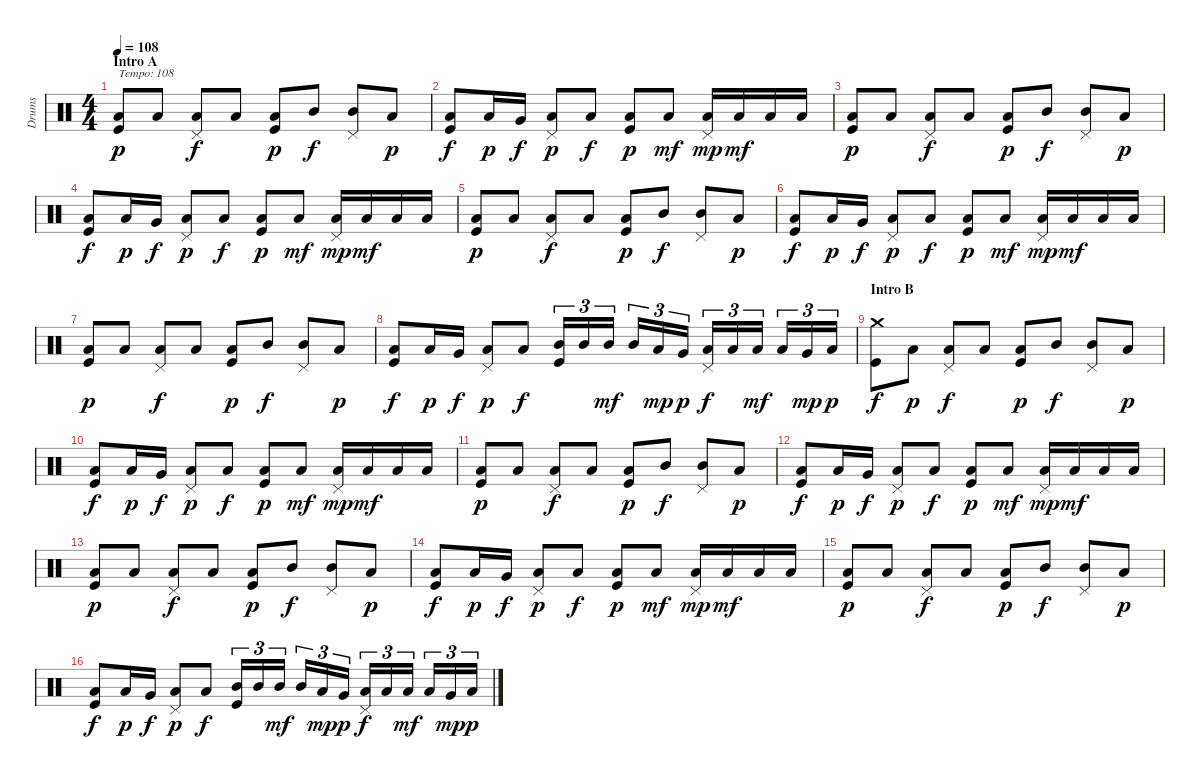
\track ("Drums" "Drums") {instrument percussion}
\staff {score}
\articulation defaults
\ts (4 4)
\section ("" "Intro A")
\tempo 108
\clef neutral
\ks c
("Low Floor Tom (hit)" "Kick (hit)").8{txt "Tempo: 108" dy p} "Low Floor Tom (hit)".8 ("Low Tom (hit)" "Pedal Hi-Hat (hit)").8{dy f} "Low Tom (hit)".8 ("Low Floor Tom (hit)" "Kick (hit)").8{dy p} "Mid Tom (hit)".8{dy f} ("Mid Tom (hit)" "Pedal Hi-Hat (hit)").8 "Low Floor Tom (hit)".8{dy p} |
("Low Tom (hit)" "Kick (hit)").8{dy f} "Low Floor Tom (hit)".16{dy p} "Very Low Tom (hit)".16{dy f} ("Low Floor Tom (hit)" "Pedal Hi-Hat (hit)").8{dy p} "Low Tom (hit)".8{dy f} ("Low Floor Tom (hit)" "Kick (hit)").8{dy p} "Low Floor Tom (hit)".8{dy mf} ("Low Floor Tom (hit)" "Pedal Hi-Hat (hit)").16{dy mp} "Low Floor Tom (hit)".16{dy mf} "Low Floor Tom (hit)".16 "Low Floor Tom (hit)".16 |
("Low Floor Tom (hit)" "Kick (hit)").8{dy p} "Low Floor Tom (hit)".8 ("Low Tom (hit)" "Pedal Hi-Hat (hit)").8{dy f} "Low Tom (hit)".8 ("Low Floor Tom (hit)" "Kick (hit)").8{dy p} "Mid Tom (hit)".8{dy f} ("Mid Tom (hit)" "Pedal Hi-Hat (hit)").8 "Low Floor Tom (hit)".8{dy p} |
("Low Tom (hit)" "Kick (hit)").8{dy f} "Low Floor Tom (hit)".16{dy p} "Very Low Tom (hit)".16{dy f} ("Low Floor Tom (hit)" "Pedal Hi-Hat (hit)").8{dy p} "Low Tom (hit)".8{dy f} ("Low Floor Tom (hit)" "Kick (hit)").8{dy p} "Low Floor Tom (hit)".8{dy mf} ("Low Floor Tom (hit)" "Pedal Hi-Hat (hit)").16{dy mp} "Low Floor Tom (hit)".16{dy mf} "Low Floor Tom (hit)".16 "Low Floor Tom (hit)".16 |
("Low Floor Tom (hit)" "Kick (hit)").8{dy p} "Low Floor Tom (hit)".8 ("Low Tom (hit)" "Pedal Hi-Hat (hit)").8{dy f} "Low Tom (hit)".8 ("Low Floor Tom (hit)" "Kick (hit)").8{dy p} "Mid Tom (hit)".8{dy f} ("Mid Tom (hit)" "Pedal Hi-Hat (hit)").8 "Low Floor Tom (hit)".8{dy p} |
("Low Tom (hit)" "Kick (hit)").8{dy f} "Low Floor Tom (hit)".16{dy p} "Very Low Tom (hit)".16{dy f} ("Low Floor Tom (hit)" "Pedal Hi-Hat (hit)").8{dy p} "Low Tom (hit)".8{dy f} ("Low Floor Tom (hit)" "Kick (hit)").8{dy p} "Low Floor Tom (hit)".8{dy mf} ("Low Floor Tom (hit)" "Pedal Hi-Hat (hit)").16{dy mp} "Low Floor Tom (hit)".16{dy mf} "Low Floor Tom (hit)".16 "Low Floor Tom (hit)".16 |
("Low Floor Tom (hit)" "Kick (hit)").8{dy p} "Low Floor Tom (hit)".8 ("Low Tom (hit)" "Pedal Hi-Hat (hit)").8{dy f} "Low Tom (hit)".8 ("Low Floor Tom (hit)" "Kick (hit)").8{dy p} "Mid Tom (hit)".8{dy f} ("Mid Tom (hit)" "Pedal Hi-Hat (hit)").8 "Low Floor Tom (hit)".8{dy p} |
("Low Tom (hit)" "Kick (hit)").8{dy f} "Low Floor Tom (hit)".16{dy p} "Very Low Tom (hit)".16{dy f} ("Low Floor Tom (hit)" "Pedal Hi-Hat (hit)").8{dy p} "Low Tom (hit)".8{dy f} ("Mid Tom (hit)" "Kick (hit)").16{tu (3 2)} "Mid Tom (hit)".16{tu (3 2)} "Mid Tom (hit)".16{tu (3 2) dy mf} "Mid Tom (hit)".16{tu (3 2)} "Low Tom (hit)".16{tu (3 2) dy mp} "Very Low Tom (hit)".16{tu (3 2) dy p} ("Low Tom (hit)" "Pedal Hi-Hat (hit)").16{tu (3 2) dy f} "Low Tom (hit)".16{tu (3 2)} "Low Tom (hit)".16{tu (3 2) dy mf} "Low Tom (hit)".16{tu (3 2)} "Very Low Tom (hit)".16{tu (3 2) dy mp} "Low Floor Tom (hit)".16{tu (3 2) dy p} |
\section ("" "Intro B")
("Crash medium (hit)" "Kick (hit)").8{dy f} "Low Floor Tom (hit)".8{dy p} ("Low Tom (hit)" "Pedal Hi-Hat (hit)").8{dy f} "Low Tom (hit)".8 ("Low Floor Tom (hit)" "Kick (hit)").8{dy p} "Mid Tom (hit)".8{dy f} ("Mid Tom (hit)" "Pedal Hi-Hat (hit)").8 "Low Floor Tom (hit)".8{dy p} |
("Low Tom (hit)" "Kick (hit)").8{dy f} "Low Floor Tom (hit)".16{dy p} "Very Low Tom (hit)".16{dy f} ("Low Floor Tom (hit)" "Pedal Hi-Hat (hit)").8{dy p} "Low Tom (hit)".8{dy f} ("Low Floor Tom (hit)" "Kick (hit)").8{dy p} "Low Floor Tom (hit)".8{dy mf} ("Low Floor Tom (hit)" "Pedal Hi-Hat (hit)").16{dy mp} "Low Floor Tom (hit)".16{dy mf} "Low Floor Tom (hit)".16 "Low Floor Tom (hit)".16 |
("Low Floor Tom (hit)" "Kick (hit)").8{dy p} "Low Floor Tom (hit)".8 ("Low Tom (hit)" "Pedal Hi-Hat (hit)").8{dy f} "Low Tom (hit)".8 ("Low Floor Tom (hit)" "Kick (hit)").8{dy p} "Mid Tom (hit)".8{dy f} ("Mid Tom (hit)" "Pedal Hi-Hat (hit)").8 "Low Floor Tom (hit)".8{dy p} |
("Low Tom (hit)" "Kick (hit)").8{dy f} "Low Floor Tom (hit)".16{dy p} "Very Low Tom (hit)".16{dy f} ("Low Floor Tom (hit)" "Pedal Hi-Hat (hit)").8{dy p} "Low Tom (hit)".8{dy f} ("Low Floor Tom (hit)" "Kick (hit)").8{dy p} "Low Floor Tom (hit)".8{dy mf} ("Low Floor Tom (hit)" "Pedal Hi-Hat (hit)").16{dy mp} "Low Floor Tom (hit)".16{dy mf} "Low Floor Tom (hit)".16 "Low Floor Tom (hit)".16 |
("Low Floor Tom (hit)" "Kick (hit)").8{dy p} "Low Floor Tom (hit)".8 ("Low Tom (hit)" "Pedal Hi-Hat (hit)").8{dy f} "Low Tom (hit)".8 ("Low Floor Tom (hit)" "Kick (hit)").8{dy p} "Mid Tom (hit)".8{dy f} ("Mid Tom (hit)" "Pedal Hi-Hat (hit)").8 "Low Floor Tom (hit)".8{dy p} |
("Low Tom (hit)" "Kick (hit)").8{dy f} "Low Floor Tom (hit)".16{dy p} "Very Low Tom (hit)".16{dy f} ("Low Floor Tom (hit)" "Pedal Hi-Hat (hit)").8{dy p} "Low Tom (hit)".8{dy f} ("Low Floor Tom (hit)" "Kick (hit)").8{dy p} "Low Floor Tom (hit)".8{dy mf} ("Low Floor Tom (hit)" "Pedal Hi-Hat (hit)").16{dy mp} "Low Floor Tom (hit)".16{dy mf} "Low Floor Tom (hit)".16 "Low Floor Tom (hit)".16 |
("Low Floor Tom (hit)" "Kick (hit)").8{dy p} "Low Floor Tom (hit)".8 ("Low Tom (hit)" "Pedal Hi-Hat (hit)").8{dy f} "Low Tom (hit)".8 ("Low Floor Tom (hit)" "Kick (hit)").8{dy p} "Mid Tom (hit)".8{dy f} ("Mid Tom (hit)" "Pedal Hi-Hat (hit)").8 "Low Floor Tom (hit)".8{dy p} |
("Low Tom (hit)" "Kick (hit)").8{dy f} "Low Floor Tom (hit)".16{dy p} "Very Low Tom (hit)".16{dy f} ("Low Floor Tom (hit)" "Pedal Hi-Hat (hit)").8{dy p} "Low Tom (hit)".8{dy f} ("Mid Tom (hit)" "Kick (hit)").16{tu (3 2)} "Mid Tom (hit)".16{tu (3 2)} "Mid Tom (hit)".16{tu (3 2) dy mf} "Mid Tom (hit)".16{tu (3 2)} "Low Tom (hit)".16{tu (3 2) dy mp} "Very Low Tom (hit)".16{tu (3 2) dy p} ("Low Tom (hit)" "Pedal Hi-Hat (hit)").16{tu (3 2) dy f} "Low Tom (hit)".16{tu (3 2)} "Low Tom (hit)".16{tu (3 2) dy mf} "Low Tom (hit)".16{tu (3 2)} "Very Low Tom (hit)".16{tu (3 2) dy mp} "Low Floor Tom (hit)".16{tu (3 2) dy p}
